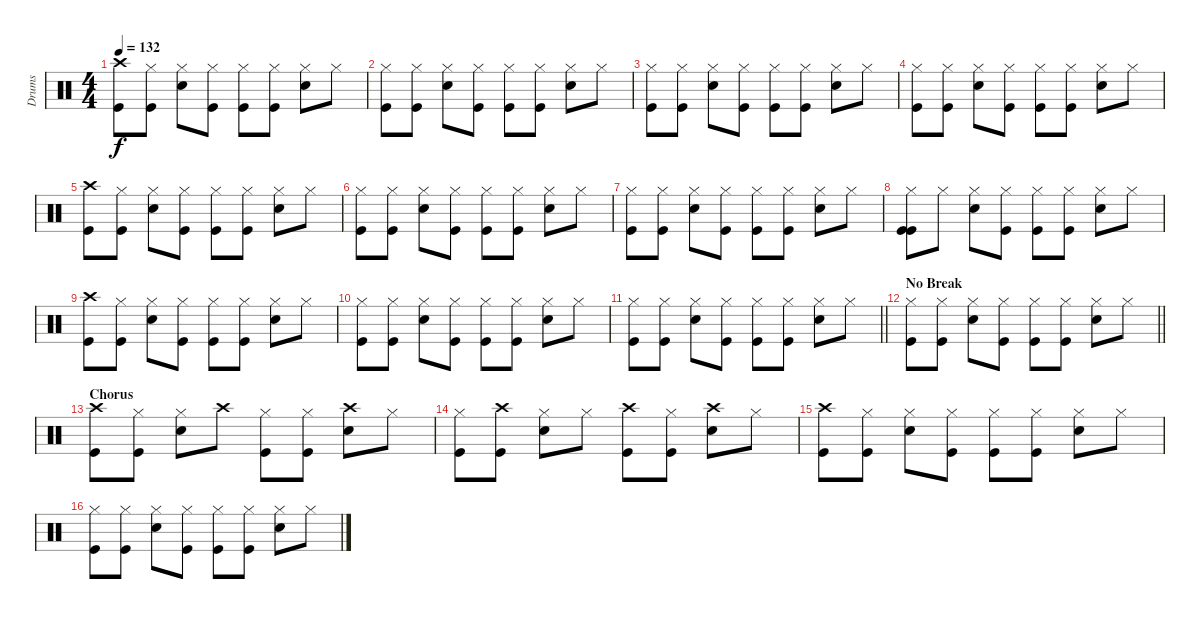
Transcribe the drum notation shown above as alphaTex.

\track ("Drums" "Drums") {instrument percussion}
\staff {score}
\articulation defaults
\ts (4 4)
\tempo 132
\clef neutral
\ks c
("Crash high (hit)" "Kick (hit)").8{dy f} ("Hi-Hat (closed)" "Kick (hit)").8 ("Hi-Hat (closed)" "Snare (hit) 2").8 ("Hi-Hat (closed)" "Kick (hit)").8 ("Hi-Hat (closed)" "Kick (hit)").8 ("Kick (hit)" "Hi-Hat (closed)").8 ("Hi-Hat (closed)" "Snare (hit) 2").8 "Hi-Hat (closed)".8 |
("Kick (hit)" "Hi-Hat (closed)").8 ("Kick (hit)" "Hi-Hat (closed)").8 ("Hi-Hat (closed)" "Snare (hit) 2").8 ("Hi-Hat (closed)" "Kick (hit)").8 ("Kick (hit)" "Hi-Hat (closed)").8 ("Hi-Hat (closed)" "Kick (hit)").8 ("Snare (hit) 2" "Hi-Hat (closed)").8 "Hi-Hat (closed)".8 |
("Hi-Hat (closed)" "Kick (hit)").8 ("Hi-Hat (closed)" "Kick (hit)").8 ("Hi-Hat (closed)" "Snare (hit) 2").8 ("Hi-Hat (closed)" "Kick (hit)").8 ("Hi-Hat (closed)" "Kick (hit)").8 ("Kick (hit)" "Hi-Hat (closed)").8 ("Hi-Hat (closed)" "Snare (hit) 2").8 "Hi-Hat (closed)".8 |
("Kick (hit)" "Hi-Hat (closed)").8 ("Kick (hit)" "Hi-Hat (closed)").8 ("Hi-Hat (closed)" "Snare (hit) 2").8 ("Hi-Hat (closed)" "Kick (hit)").8 ("Kick (hit)" "Hi-Hat (closed)").8 ("Hi-Hat (closed)" "Kick (hit)").8 ("Snare (hit) 2" "Hi-Hat (closed)").8 "Hi-Hat (closed)".8 |
("Crash high (hit)" "Kick (hit)").8 ("Hi-Hat (closed)" "Kick (hit)").8 ("Hi-Hat (closed)" "Snare (hit) 2").8 ("Hi-Hat (closed)" "Kick (hit)").8 ("Hi-Hat (closed)" "Kick (hit)").8 ("Kick (hit)" "Hi-Hat (closed)").8 ("Hi-Hat (closed)" "Snare (hit) 2").8 "Hi-Hat (closed)".8 |
("Kick (hit)" "Hi-Hat (closed)").8 ("Kick (hit)" "Hi-Hat (closed)").8 ("Hi-Hat (closed)" "Snare (hit) 2").8 ("Hi-Hat (closed)" "Kick (hit)").8 ("Kick (hit)" "Hi-Hat (closed)").8 ("Hi-Hat (closed)" "Kick (hit)").8 ("Snare (hit) 2" "Hi-Hat (closed)").8 "Hi-Hat (closed)".8 |
("Hi-Hat (closed)" "Kick (hit)").8 ("Hi-Hat (closed)" "Kick (hit)").8 ("Hi-Hat (closed)" "Snare (hit) 2").8 ("Hi-Hat (closed)" "Kick (hit)").8 ("Hi-Hat (closed)" "Kick (hit)").8 ("Kick (hit)" "Hi-Hat (closed)").8 ("Hi-Hat (closed)" "Snare (hit) 2").8 "Hi-Hat (closed)".8 |
("Kick (hit)" "Kick (hit)" "Hi-Hat (closed)").8 "Hi-Hat (closed)".8 ("Hi-Hat (closed)" "Snare (hit) 2").8 ("Hi-Hat (closed)" "Kick (hit)").8 ("Kick (hit)" "Hi-Hat (closed)").8 ("Hi-Hat (closed)" "Kick (hit)").8 ("Snare (hit) 2" "Hi-Hat (closed)").8 "Hi-Hat (closed)".8 |
("Crash high (hit)" "Kick (hit)").8 ("Hi-Hat (closed)" "Kick (hit)").8 ("Hi-Hat (closed)" "Snare (hit) 2").8 ("Hi-Hat (closed)" "Kick (hit)").8 ("Hi-Hat (closed)" "Kick (hit)").8 ("Kick (hit)" "Hi-Hat (closed)").8 ("Hi-Hat (closed)" "Snare (hit) 2").8 "Hi-Hat (closed)".8 |
("Kick (hit)" "Hi-Hat (closed)").8 ("Kick (hit)" "Hi-Hat (closed)").8 ("Hi-Hat (closed)" "Snare (hit) 2").8 ("Hi-Hat (closed)" "Kick (hit)").8 ("Kick (hit)" "Hi-Hat (closed)").8 ("Hi-Hat (closed)" "Kick (hit)").8 ("Snare (hit) 2" "Hi-Hat (closed)").8 "Hi-Hat (closed)".8 |
\barLineRight lightlight
("Hi-Hat (closed)" "Kick (hit)").8 ("Hi-Hat (closed)" "Kick (hit)").8 ("Hi-Hat (closed)" "Snare (hit) 2").8 ("Hi-Hat (closed)" "Kick (hit)").8 ("Hi-Hat (closed)" "Kick (hit)").8 ("Kick (hit)" "Hi-Hat (closed)").8 ("Hi-Hat (closed)" "Snare (hit) 2").8 "Hi-Hat (closed)".8 |
\section ("" "No Break")
\barLineRight lightlight
("Kick (hit)" "Hi-Hat (closed)").8 ("Kick (hit)" "Hi-Hat (closed)").8 ("Hi-Hat (closed)" "Snare (hit) 2").8 ("Hi-Hat (closed)" "Kick (hit)").8 ("Kick (hit)" "Hi-Hat (closed)").8 ("Hi-Hat (closed)" "Kick (hit)").8 ("Snare (hit) 2" "Hi-Hat (closed)").8 "Hi-Hat (closed)".8 |
\section ("" "Chorus")
("Crash high (hit)" "Kick (hit)").8 ("Hi-Hat (closed)" "Kick (hit)").8 ("Hi-Hat (closed)" "Snare (hit) 2").8 "Crash high (hit)".8 ("Hi-Hat (closed)" "Kick (hit)").8 ("Hi-Hat (closed)" "Kick (hit)").8 ("Crash high (hit)" "Snare (hit) 2").8 "Hi-Hat (closed)".8 |
("Hi-Hat (closed)" "Kick (hit)").8 ("Crash high (hit)" "Kick (hit)").8 ("Hi-Hat (closed)" "Snare (hit) 2").8 "Hi-Hat (closed)".8 ("Crash high (hit)" "Kick (hit)").8 ("Hi-Hat (closed)" "Kick (hit)").8 ("Crash high (hit)" "Snare (hit) 2").8 "Hi-Hat (closed)".8 |
("Kick (hit)" "Crash high (hit)").8 ("Kick (hit)" "Hi-Hat (closed)").8 ("Electric Snare (hit)" "Hi-Hat (closed)").8 ("Kick (hit)" "Hi-Hat (closed)").8 ("Kick (hit)" "Hi-Hat (closed)").8 ("Kick (hit)" "Hi-Hat (closed)").8 ("Electric Snare (hit)" "Hi-Hat (closed)").8 "Hi-Hat (closed)".8 |
("Kick (hit)" "Hi-Hat (closed)").8 ("Kick (hit)" "Hi-Hat (closed)").8 ("Snare (hit) 2" "Hi-Hat (closed)").8 ("Kick (hit)" "Hi-Hat (closed)").8 ("Kick (hit)" "Hi-Hat (closed)").8 ("Kick (hit)" "Hi-Hat (closed)").8 ("Snare (hit) 2" "Hi-Hat (closed)").8 "Hi-Hat (closed)".8
